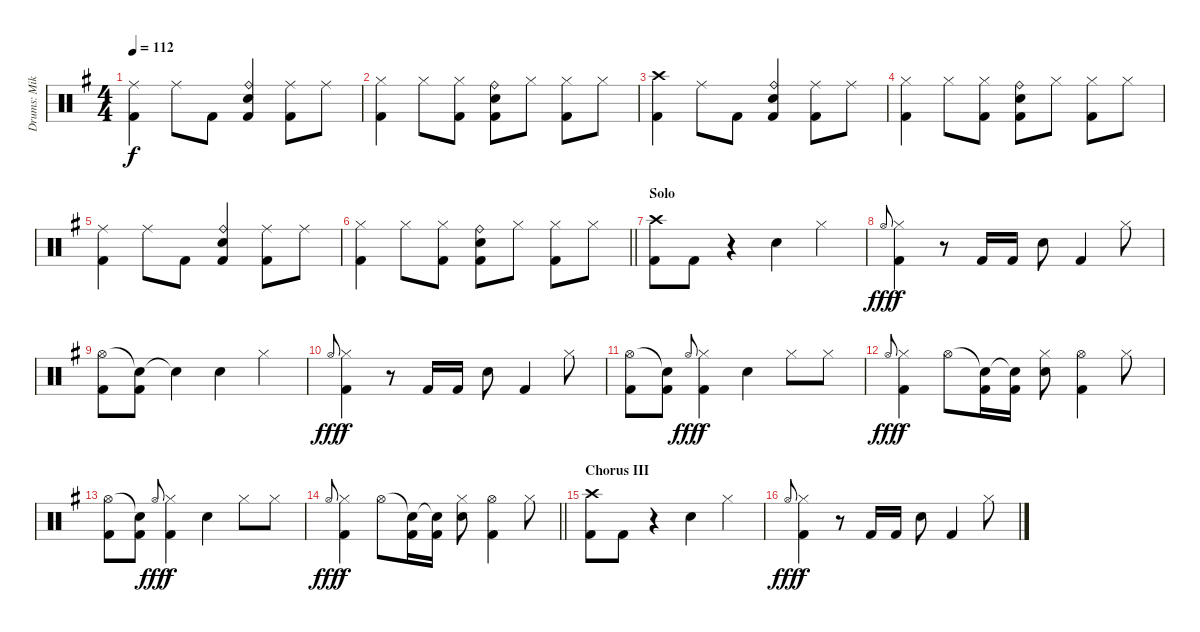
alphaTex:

\track ("Drums: Mike" "Drums: Mik") {instrument percussion}
\staff {score}
\articulation defaults
\ts (4 4)
\tempo 112
\clef neutral
\ks g
("Ride (middle)" "Kick (hit) 2").4{dy f} "Ride (middle)".8 "Kick (hit) 2".8 ("Ride (bell)" "Electric Snare (hit)" "Kick (hit) 2").4 ("Ride (middle)" "Kick (hit) 2").8 "Ride (middle)".8 |
("Hi-Hat (closed)" "Kick (hit) 2").4 "Hi-Hat (closed)".8 ("Hi-Hat (closed)" "Kick (hit) 2").8 ("Ride (bell)" "Electric Snare (hit)" "Kick (hit) 2").8 "Hi-Hat (closed)".8 ("Hi-Hat (closed)" "Kick (hit) 2").8 "Hi-Hat (closed)".8 |
("Crash high (hit)" "Kick (hit) 2").4 "Ride (middle)".8 "Kick (hit) 2".8 ("Ride (bell)" "Electric Snare (hit)" "Kick (hit) 2").4 ("Ride (middle)" "Kick (hit) 2").8 "Ride (middle)".8 |
("Hi-Hat (closed)" "Kick (hit) 2").4 "Hi-Hat (closed)".8 ("Hi-Hat (closed)" "Kick (hit) 2").8 ("Ride (bell)" "Electric Snare (hit)" "Kick (hit) 2").8 "Hi-Hat (closed)".8 ("Hi-Hat (closed)" "Kick (hit) 2").8 "Hi-Hat (closed)".8 |
("Ride (middle)" "Kick (hit) 2").4 "Ride (middle)".8 "Kick (hit) 2".8 ("Ride (bell)" "Electric Snare (hit)" "Kick (hit) 2").4 ("Ride (middle)" "Kick (hit) 2").8 "Ride (middle)".8 |
\barLineRight lightlight
("Hi-Hat (closed)" "Kick (hit) 2").4 "Hi-Hat (closed)".8 ("Hi-Hat (closed)" "Kick (hit) 2").8 ("Ride (bell)" "Electric Snare (hit)" "Kick (hit) 2").8 "Hi-Hat (closed)".8 ("Hi-Hat (closed)" "Kick (hit) 2").8 "Hi-Hat (closed)".8 |
\section ("" "Solo")
("Crash high (hit)" "Kick (hit) 2").8 "Kick (hit) 2".8 r.4 "Electric Snare (hit)".4 "Hi-Hat (closed)".4 |
"Hi-Hat (open)".8{gr onbeat dy fff} ("Hi-Hat (closed)" "Kick (hit) 2").4{dy f} r.8 "Kick (hit) 2".16 "Kick (hit) 2".16 "Electric Snare (hit)".8 "Kick (hit) 2".4 "Hi-Hat (closed)".8 |
("Hi-Hat (open)" "Kick (hit) 2").8 ("Snare (hit)"{t} "Kick (hit) 2").8 "Snare (hit)"{t}.4 "Electric Snare (hit)".4 "Hi-Hat (closed)".4 |
"Hi-Hat (open)".8{gr onbeat dy fff} ("Hi-Hat (closed)" "Kick (hit) 2").4{dy f} r.8 "Kick (hit) 2".16 "Kick (hit) 2".16 "Electric Snare (hit)".8 "Kick (hit) 2".4 "Hi-Hat (closed)".8 |
("Hi-Hat (open)" "Kick (hit) 2").8 ("Snare (hit)"{t} "Kick (hit) 2").8 "Hi-Hat (open)".8{gr onbeat dy fff} ("Hi-Hat (closed)" "Kick (hit) 2").4{dy f} "Electric Snare (hit)".4 "Hi-Hat (closed)".8 "Hi-Hat (closed)".8 |
"Hi-Hat (open)".8{gr onbeat dy fff} ("Hi-Hat (closed)" "Kick (hit) 2").4{dy f} "Hi-Hat (open)".8 ("Snare (hit)"{t} "Kick (hit) 2").16 ("Snare (hit)"{t} "Kick (hit) 2").16 ("Hi-Hat (closed)" "Electric Snare (hit)").8 ("Hi-Hat (open)" "Kick (hit) 2").4 "Hi-Hat (closed)".8 |
("Hi-Hat (open)" "Kick (hit) 2").8 ("Snare (hit)"{t} "Kick (hit) 2").8 "Hi-Hat (open)".8{gr onbeat dy fff} ("Hi-Hat (closed)" "Kick (hit) 2").4{dy f} "Electric Snare (hit)".4 "Hi-Hat (closed)".8 "Hi-Hat (closed)".8 |
\barLineRight lightlight "Hi-Hat (open)".8{gr onbeat dy fff}
("Hi-Hat (closed)" "Kick (hit) 2").4{dy f} "Hi-Hat (open)".8 ("Snare (hit)"{t} "Kick (hit) 2").16 ("Snare (hit)"{t} "Kick (hit) 2").16 ("Hi-Hat (closed)" "Electric Snare (hit)").8 ("Hi-Hat (open)" "Kick (hit) 2").4 "Hi-Hat (closed)".8 |
\section ("" "Chorus III")
("Crash high (hit)" "Kick (hit) 2").8 "Kick (hit) 2".8 r.4 "Electric Snare (hit)".4 "Hi-Hat (closed)".4 |
"Hi-Hat (open)".8{gr onbeat dy fff} ("Hi-Hat (closed)" "Kick (hit) 2").4{dy f} r.8 "Kick (hit) 2".16 "Kick (hit) 2".16 "Electric Snare (hit)".8 "Kick (hit) 2".4 "Hi-Hat (closed)".8
